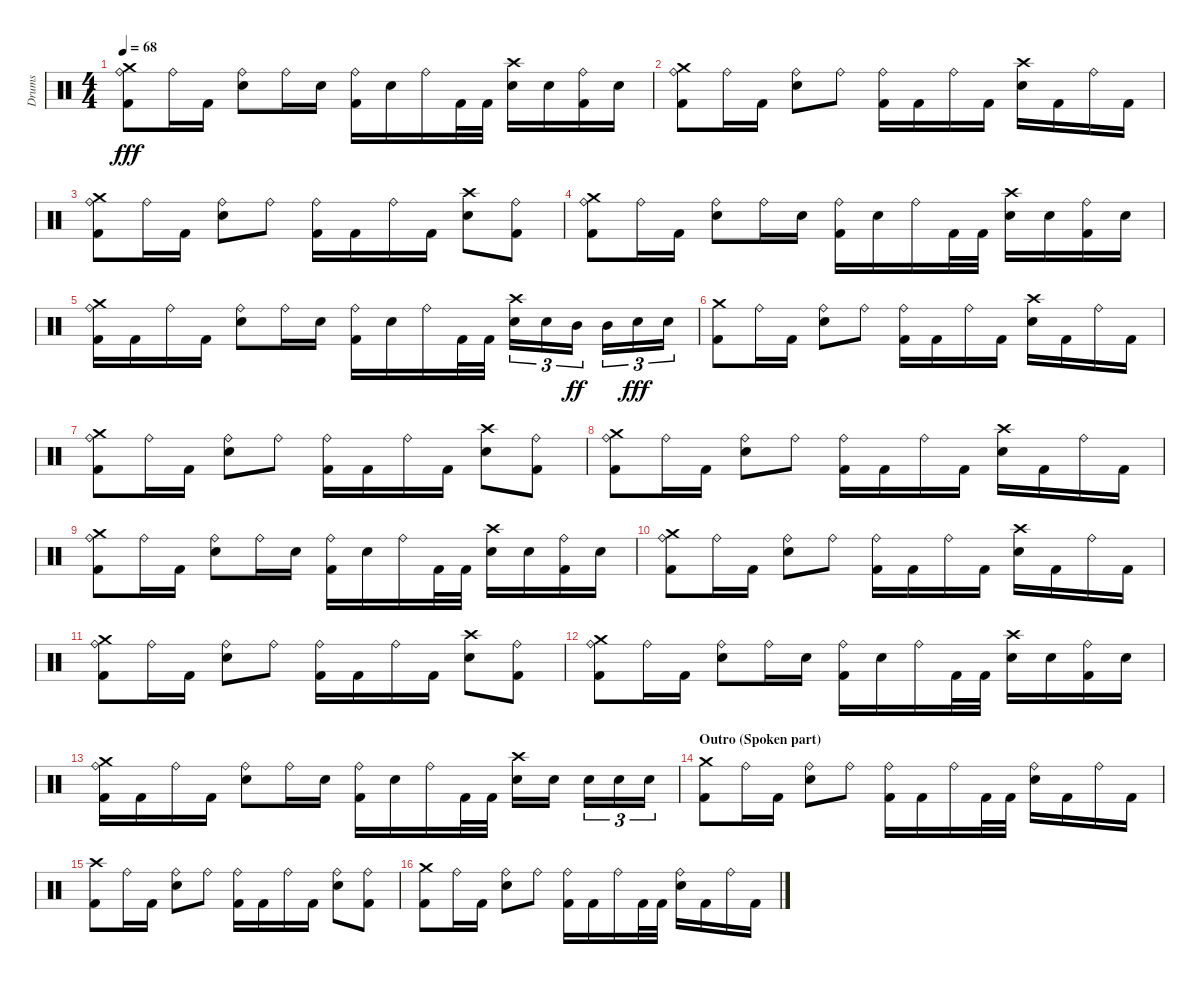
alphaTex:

\track ("Drums" "Drums") {instrument percussion}
\staff {score}
\articulation defaults
\ts (4 4)
\tempo 68
\clef neutral
\ks c
("Crash medium (hit)" "Ride (bell)" "Kick (hit) 2").8{dy fff} "Ride (bell)".16 "Kick (hit) 2".16 ("Ride (bell)" "Electric Snare (hit)").8 "Ride (bell)".16 "Electric Snare (hit)".16 ("Ride (bell)" "Kick (hit) 2").16 "Electric Snare (hit)".16 "Ride (bell)".16 "Kick (hit) 2".32 "Kick (hit) 2".32 ("Crash high (hit)" "Electric Snare (hit)").16 "Electric Snare (hit)".16 ("Ride (bell)" "Kick (hit) 2").16 "Electric Snare (hit)".16 |
("Crash medium (hit)" "Ride (bell)" "Kick (hit) 2").8 "Ride (bell)".16 "Kick (hit) 2".16 ("Ride (bell)" "Electric Snare (hit)").8 "Ride (bell)".8 ("Ride (bell)" "Kick (hit) 2").16 "Kick (hit) 2".16 "Ride (bell)".16 "Kick (hit) 2".16 ("Crash high (hit)" "Electric Snare (hit)").16 "Kick (hit) 2".16 "Ride (bell)".16 "Kick (hit) 2".16 |
("Crash medium (hit)" "Ride (bell)" "Kick (hit) 2").8 "Ride (bell)".16 "Kick (hit) 2".16 ("Ride (bell)" "Electric Snare (hit)").8 "Ride (bell)".8 ("Ride (bell)" "Kick (hit) 2").16 "Kick (hit) 2".16 "Ride (bell)".16 "Kick (hit) 2".16 ("Crash high (hit)" "Electric Snare (hit)").8 ("Ride (bell)" "Kick (hit) 2").8 |
("Crash medium (hit)" "Ride (bell)" "Kick (hit) 2").8 "Ride (bell)".16 "Kick (hit) 2".16 ("Ride (bell)" "Electric Snare (hit)").8 "Ride (bell)".16 "Electric Snare (hit)".16 ("Ride (bell)" "Kick (hit) 2").16 "Electric Snare (hit)".16 "Ride (bell)".16 "Kick (hit) 2".32 "Kick (hit) 2".32 ("Crash high (hit)" "Electric Snare (hit)").16 "Electric Snare (hit)".16 ("Ride (bell)" "Kick (hit) 2").16 "Electric Snare (hit)".16 |
("Crash medium (hit)" "Ride (bell)" "Kick (hit) 2").16 "Kick (hit) 2".16 "Ride (bell)".16 "Kick (hit) 2".16 ("Ride (bell)" "Electric Snare (hit)").8 "Ride (bell)".16 "Electric Snare (hit)".16 ("Ride (bell)" "Kick (hit) 2").16 "Electric Snare (hit)".16 "Ride (bell)".16 "Kick (hit) 2".32 "Kick (hit) 2".32 ("Crash high (hit)" "Electric Snare (hit)").16{tu (3 2)} "Electric Snare (hit)".16{tu (3 2)} "Mid Tom (hit)".16{tu (3 2) dy ff} "Mid Tom (hit)".16{tu (3 2)} "Electric Snare (hit)".16{tu (3 2) dy fff} "Electric Snare (hit)".16{tu (3 2)} |
("Crash medium (hit)" "Kick (hit) 2").8 "Ride (bell)".16 "Kick (hit) 2".16 ("Ride (bell)" "Electric Snare (hit)").8 "Ride (bell)".8 ("Ride (bell)" "Kick (hit) 2").16 "Kick (hit) 2".16 "Ride (bell)".16 "Kick (hit) 2".16 ("Crash high (hit)" "Electric Snare (hit)").16 "Kick (hit) 2".16 "Ride (bell)".16 "Kick (hit) 2".16 |
("Crash medium (hit)" "Ride (bell)" "Kick (hit) 2").8 "Ride (bell)".16 "Kick (hit) 2".16 ("Ride (bell)" "Electric Snare (hit)").8 "Ride (bell)".8 ("Ride (bell)" "Kick (hit) 2").16 "Kick (hit) 2".16 "Ride (bell)".16 "Kick (hit) 2".16 ("Crash high (hit)" "Electric Snare (hit)").8 ("Ride (bell)" "Kick (hit) 2").8 |
("Crash medium (hit)" "Ride (bell)" "Kick (hit) 2").8 "Ride (bell)".16 "Kick (hit) 2".16 ("Ride (bell)" "Electric Snare (hit)").8 "Ride (bell)".8 ("Ride (bell)" "Kick (hit) 2").16 "Kick (hit) 2".16 "Ride (bell)".16 "Kick (hit) 2".16 ("Crash high (hit)" "Electric Snare (hit)").16 "Kick (hit) 2".16 "Ride (bell)".16 "Kick (hit) 2".16 |
("Crash medium (hit)" "Ride (bell)" "Kick (hit) 2").8 "Ride (bell)".16 "Kick (hit) 2".16 ("Ride (bell)" "Electric Snare (hit)").8 "Ride (bell)".16 "Electric Snare (hit)".16 ("Ride (bell)" "Kick (hit) 2").16 "Electric Snare (hit)".16 "Ride (bell)".16 "Kick (hit) 2".32 "Kick (hit) 2".32 ("Crash high (hit)" "Electric Snare (hit)").16 "Electric Snare (hit)".16 ("Ride (bell)" "Kick (hit) 2").16 "Electric Snare (hit)".16 |
("Crash medium (hit)" "Ride (bell)" "Kick (hit) 2").8 "Ride (bell)".16 "Kick (hit) 2".16 ("Ride (bell)" "Electric Snare (hit)").8 "Ride (bell)".8 ("Ride (bell)" "Kick (hit) 2").16 "Kick (hit) 2".16 "Ride (bell)".16 "Kick (hit) 2".16 ("Crash high (hit)" "Electric Snare (hit)").16 "Kick (hit) 2".16 "Ride (bell)".16 "Kick (hit) 2".16 |
("Crash medium (hit)" "Ride (bell)" "Kick (hit) 2").8 "Ride (bell)".16 "Kick (hit) 2".16 ("Ride (bell)" "Electric Snare (hit)").8 "Ride (bell)".8 ("Ride (bell)" "Kick (hit) 2").16 "Kick (hit) 2".16 "Ride (bell)".16 "Kick (hit) 2".16 ("Crash high (hit)" "Electric Snare (hit)").8 ("Ride (bell)" "Kick (hit) 2").8 |
("Crash medium (hit)" "Ride (bell)" "Kick (hit) 2").8 "Ride (bell)".16 "Kick (hit) 2".16 ("Ride (bell)" "Electric Snare (hit)").8 "Ride (bell)".16 "Electric Snare (hit)".16 ("Ride (bell)" "Kick (hit) 2").16 "Electric Snare (hit)".16 "Ride (bell)".16 "Kick (hit) 2".32 "Kick (hit) 2".32 ("Crash high (hit)" "Electric Snare (hit)").16 "Electric Snare (hit)".16 ("Ride (bell)" "Kick (hit) 2").16 "Electric Snare (hit)".16 |
("Crash medium (hit)" "Ride (bell)" "Kick (hit) 2").16 "Kick (hit) 2".16 "Ride (bell)".16 "Kick (hit) 2".16 ("Ride (bell)" "Electric Snare (hit)").8 "Ride (bell)".16 "Electric Snare (hit)".16 ("Ride (bell)" "Kick (hit) 2").16 "Electric Snare (hit)".16 "Ride (bell)".16 "Kick (hit) 2".32 "Kick (hit) 2".32 ("Crash high (hit)" "Electric Snare (hit)").16 "Electric Snare (hit)".16 "Electric Snare (hit)".16{tu (3 2)} "Electric Snare (hit)".16{tu (3 2)} "Electric Snare (hit)".16{tu (3 2)} |
\section ("" "Outro (Spoken part)")
("Crash medium (hit)" "Kick (hit) 2").8 "Ride (bell)".16 "Kick (hit) 2".16 ("Ride (bell)" "Electric Snare (hit)").8 "Ride (bell)".8 ("Ride (bell)" "Kick (hit) 2").16 "Kick (hit) 2".16 "Ride (bell)".16 "Kick (hit) 2".32 "Kick (hit) 2".32 ("Ride (bell)" "Electric Snare (hit)").16 "Kick (hit) 2".16 "Ride (bell)".16 "Kick (hit) 2".16 |
("Crash high (hit)" "Kick (hit) 2").8 "Ride (bell)".16 "Kick (hit) 2".16 ("Ride (bell)" "Electric Snare (hit)").8 "Ride (bell)".8 ("Ride (bell)" "Kick (hit) 2").16 "Kick (hit) 2".16 "Ride (bell)".16 "Kick (hit) 2".16 ("Ride (bell)" "Electric Snare (hit)").8 ("Ride (bell)" "Kick (hit) 2").8 |
("Crash medium (hit)" "Kick (hit) 2").8 "Ride (bell)".16 "Kick (hit) 2".16 ("Ride (bell)" "Electric Snare (hit)").8 "Ride (bell)".8 ("Ride (bell)" "Kick (hit) 2").16 "Kick (hit) 2".16 "Ride (bell)".16 "Kick (hit) 2".32 "Kick (hit) 2".32 ("Ride (bell)" "Electric Snare (hit)").16 "Kick (hit) 2".16 "Ride (bell)".16 "Kick (hit) 2".16
